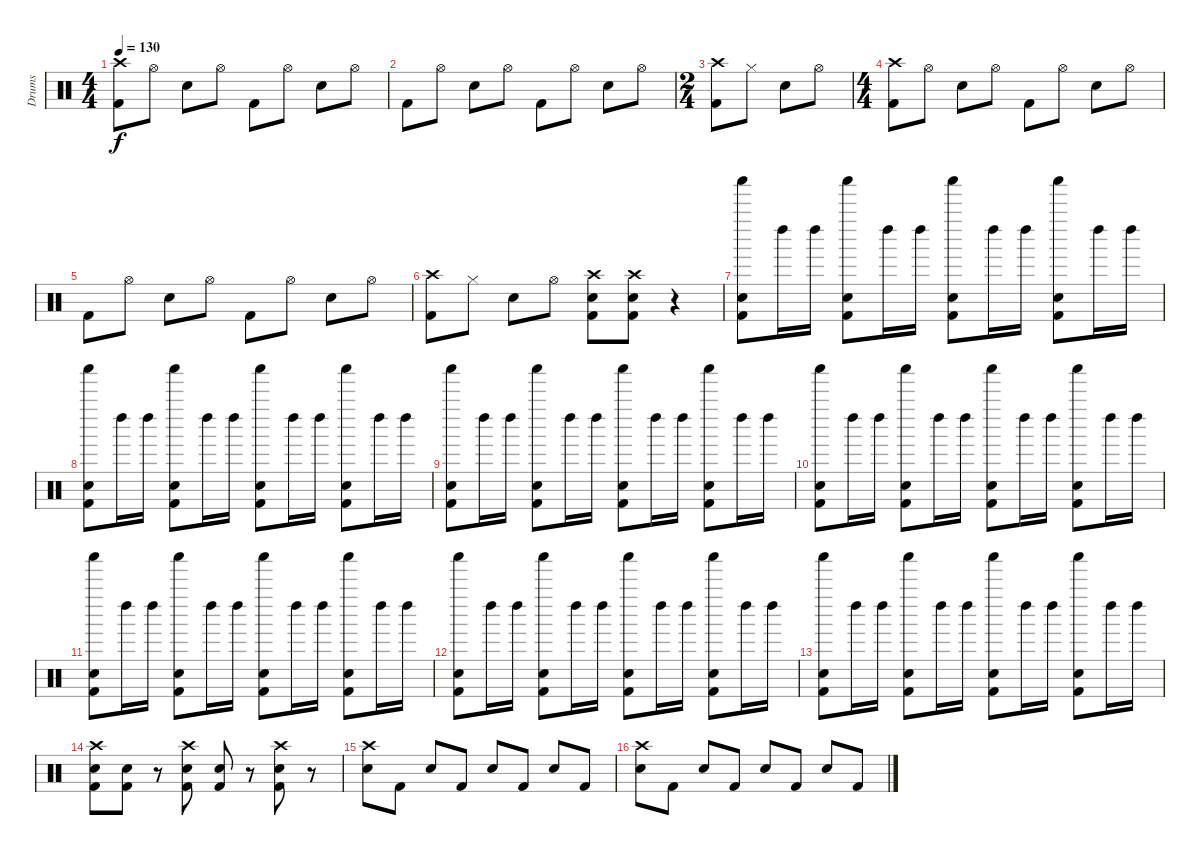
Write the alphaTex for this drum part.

\track ("Drums" "Drums") {instrument percussion}
\staff {score}
\articulation defaults
\ts (4 4)
\tempo 130
\clef neutral
\ks c
("Crash high (hit)" "Kick (hit) 2").8{dy f} "Hi-Hat (open)".8 "Electric Snare (hit)".8 "Hi-Hat (open)".8 "Kick (hit) 2".8 "Hi-Hat (open)".8 "Electric Snare (hit)".8 "Hi-Hat (open)".8 |
"Kick (hit) 2".8 "Hi-Hat (open)".8 "Electric Snare (hit)".8 "Hi-Hat (open)".8 "Kick (hit) 2".8 "Hi-Hat (open)".8 "Electric Snare (hit)".8 "Hi-Hat (open)".8 |
\ts (2 4)
("Crash high (hit)" "Kick (hit) 2").8 "Hi-Hat (closed)".8 "Electric Snare (hit)".8 "Hi-Hat (open)".8 |
\ts (4 4)
("Crash high (hit)" "Kick (hit) 2").8 "Hi-Hat (open)".8 "Electric Snare (hit)".8 "Hi-Hat (open)".8 "Kick (hit) 2".8 "Hi-Hat (open)".8 "Electric Snare (hit)".8 "Hi-Hat (open)".8 |
"Kick (hit) 2".8 "Hi-Hat (open)".8 "Electric Snare (hit)".8 "Hi-Hat (open)".8 "Kick (hit) 2".8 "Hi-Hat (open)".8 "Electric Snare (hit)".8 "Hi-Hat (open)".8 |
("Crash high (hit)" "Kick (hit) 2").8 "Hi-Hat (closed)".8 "Electric Snare (hit)".8 "Hi-Hat (open)".8 ("Crash high (hit)" "Electric Snare (hit)" "Kick (hit) 2").8 ("Crash high (hit)" "Electric Snare (hit)" "Kick (hit) 2").8 r.4 |
("Shaker (hit)" "Kick (hit) 2" "Electric Snare (hit)").8 "Left Maraca (hit)".16 "Left Maraca (hit)".16 ("Shaker (hit)" "Kick (hit) 2" "Electric Snare (hit)").8 "Left Maraca (hit)".16 "Left Maraca (hit)".16 ("Shaker (hit)" "Kick (hit) 2" "Electric Snare (hit)").8 "Left Maraca (hit)".16 "Left Maraca (hit)".16 ("Shaker (hit)" "Kick (hit) 2" "Electric Snare (hit)").8 "Left Maraca (hit)".16 "Left Maraca (hit)".16 |
("Shaker (hit)" "Kick (hit) 2" "Electric Snare (hit)").8 "Left Maraca (hit)".16 "Left Maraca (hit)".16 ("Shaker (hit)" "Kick (hit) 2" "Electric Snare (hit)").8 "Left Maraca (hit)".16 "Left Maraca (hit)".16 ("Shaker (hit)" "Kick (hit) 2" "Electric Snare (hit)").8 "Left Maraca (hit)".16 "Left Maraca (hit)".16 ("Shaker (hit)" "Kick (hit) 2" "Electric Snare (hit)").8 "Left Maraca (hit)".16 "Left Maraca (hit)".16 |
("Shaker (hit)" "Kick (hit) 2" "Electric Snare (hit)").8 "Left Maraca (hit)".16 "Left Maraca (hit)".16 ("Shaker (hit)" "Kick (hit) 2" "Electric Snare (hit)").8 "Left Maraca (hit)".16 "Left Maraca (hit)".16 ("Shaker (hit)" "Kick (hit) 2" "Electric Snare (hit)").8 "Left Maraca (hit)".16 "Left Maraca (hit)".16 ("Shaker (hit)" "Kick (hit) 2" "Electric Snare (hit)").8 "Left Maraca (hit)".16 "Left Maraca (hit)".16 |
("Shaker (hit)" "Kick (hit) 2" "Electric Snare (hit)").8 "Left Maraca (hit)".16 "Left Maraca (hit)".16 ("Shaker (hit)" "Kick (hit) 2" "Electric Snare (hit)").8 "Left Maraca (hit)".16 "Left Maraca (hit)".16 ("Shaker (hit)" "Kick (hit) 2" "Electric Snare (hit)").8 "Left Maraca (hit)".16 "Left Maraca (hit)".16 ("Shaker (hit)" "Kick (hit) 2" "Electric Snare (hit)").8 "Left Maraca (hit)".16 "Left Maraca (hit)".16 |
("Shaker (hit)" "Kick (hit) 2" "Electric Snare (hit)").8 "Left Maraca (hit)".16 "Left Maraca (hit)".16 ("Shaker (hit)" "Kick (hit) 2" "Electric Snare (hit)").8 "Left Maraca (hit)".16 "Left Maraca (hit)".16 ("Shaker (hit)" "Kick (hit) 2" "Electric Snare (hit)").8 "Left Maraca (hit)".16 "Left Maraca (hit)".16 ("Shaker (hit)" "Kick (hit) 2" "Electric Snare (hit)").8 "Left Maraca (hit)".16 "Left Maraca (hit)".16 |
("Shaker (hit)" "Kick (hit) 2" "Electric Snare (hit)").8 "Left Maraca (hit)".16 "Left Maraca (hit)".16 ("Shaker (hit)" "Kick (hit) 2" "Electric Snare (hit)").8 "Left Maraca (hit)".16 "Left Maraca (hit)".16 ("Shaker (hit)" "Kick (hit) 2" "Electric Snare (hit)").8 "Left Maraca (hit)".16 "Left Maraca (hit)".16 ("Shaker (hit)" "Kick (hit) 2" "Electric Snare (hit)").8 "Left Maraca (hit)".16 "Left Maraca (hit)".16 |
("Shaker (hit)" "Kick (hit) 2" "Electric Snare (hit)").8 "Left Maraca (hit)".16 "Left Maraca (hit)".16 ("Shaker (hit)" "Kick (hit) 2" "Electric Snare (hit)").8 "Left Maraca (hit)".16 "Left Maraca (hit)".16 ("Shaker (hit)" "Kick (hit) 2" "Electric Snare (hit)").8 "Left Maraca (hit)".16 "Left Maraca (hit)".16 ("Shaker (hit)" "Kick (hit) 2" "Electric Snare (hit)").8 "Left Maraca (hit)".16 "Left Maraca (hit)".16 |
("Crash high (hit)" "Kick (hit) 2" "Electric Snare (hit)").8 ("Kick (hit) 2" "Electric Snare (hit)").8 r.8 ("Crash high (hit)" "Kick (hit) 2" "Electric Snare (hit)").8 ("Kick (hit) 2" "Electric Snare (hit)").8 r.8 ("Crash high (hit)" "Kick (hit) 2" "Electric Snare (hit)").8 r.8 |
("Crash high (hit)" "Electric Snare (hit)").8 "Kick (hit) 2".8 "Electric Snare (hit)".8 "Kick (hit) 2".8 "Electric Snare (hit)".8 "Kick (hit) 2".8 "Electric Snare (hit)".8 "Kick (hit) 2".8 |
("Crash high (hit)" "Electric Snare (hit)").8 "Kick (hit) 2".8 "Electric Snare (hit)".8 "Kick (hit) 2".8 "Electric Snare (hit)".8 "Kick (hit) 2".8 "Electric Snare (hit)".8 "Kick (hit) 2".8
